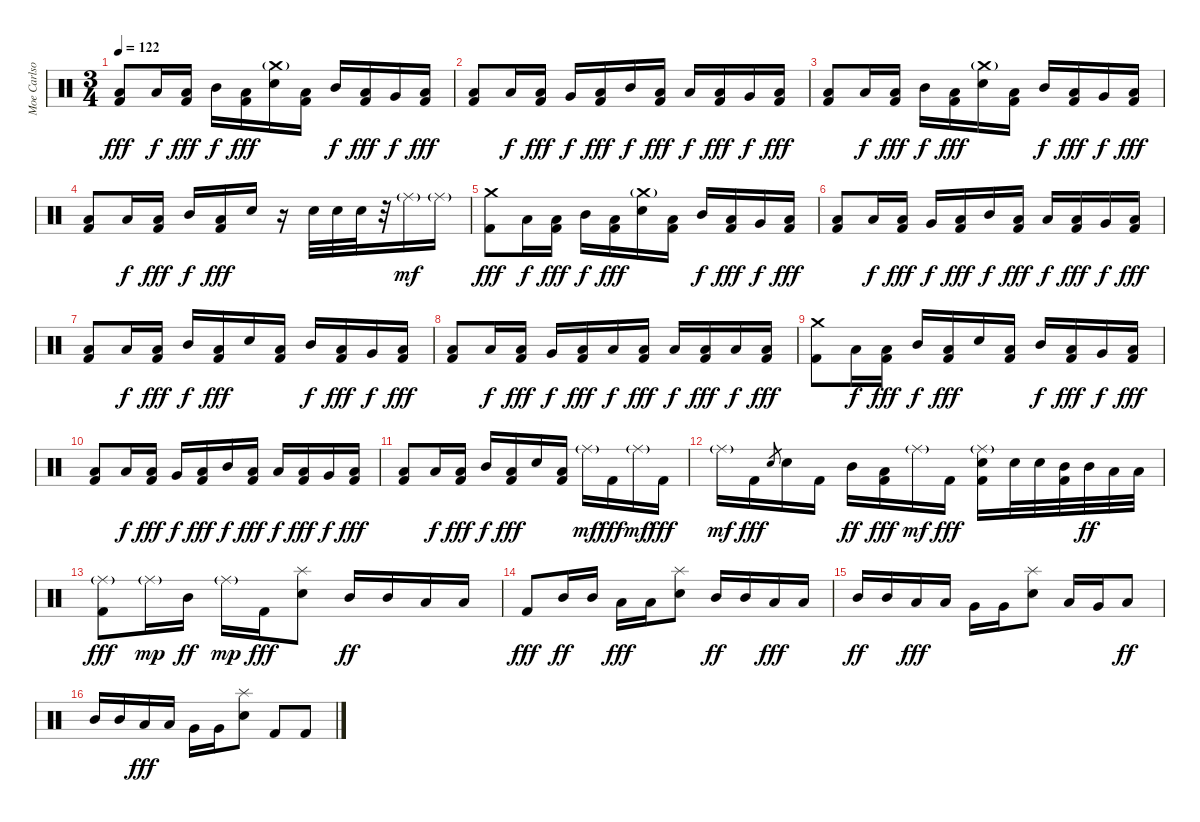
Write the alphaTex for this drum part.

\track ("Moe Carlson" "Moe Carlso") {instrument percussion}
\staff {score}
\articulation defaults
\ts (3 4)
\tempo 122
\clef neutral
\ks c
("Low Floor Tom (hit)" "Kick (hit) 2").8{dy fff} "Low Tom (hit)".16{dy f} ("Low Floor Tom (hit)" "Kick (hit) 2").16{dy fff} "Mid Tom (hit)".16{dy f} ("Low Floor Tom (hit)" "Kick (hit) 2").16{dy fff} ("Crash medium (hit)"{g} "Electric Snare (hit)").16 ("Low Floor Tom (hit)" "Kick (hit) 2").16 "Mid Tom (hit)".16{dy f} ("Low Floor Tom (hit)" "Kick (hit) 2").16{dy fff} "Very Low Tom (hit)".16{dy f} ("Low Floor Tom (hit)" "Kick (hit) 2").16{dy fff} |
("Low Floor Tom (hit)" "Kick (hit) 2").8 "Low Tom (hit)".16{dy f} ("Low Floor Tom (hit)" "Kick (hit) 2").16{dy fff} "Very Low Tom (hit)".16{dy f} ("Low Floor Tom (hit)" "Kick (hit) 2").16{dy fff} "Mid Tom (hit)".16{dy f} ("Low Floor Tom (hit)" "Kick (hit) 2").16{dy fff} "Low Tom (hit)".16{dy f} ("Low Floor Tom (hit)" "Kick (hit) 2").16{dy fff} "Very Low Tom (hit)".16{dy f} ("Low Floor Tom (hit)" "Kick (hit) 2").16{dy fff} |
("Low Floor Tom (hit)" "Kick (hit) 2").8 "Low Tom (hit)".16{dy f} ("Low Floor Tom (hit)" "Kick (hit) 2").16{dy fff} "Mid Tom (hit)".16{dy f} ("Low Floor Tom (hit)" "Kick (hit) 2").16{dy fff} ("Crash medium (hit)"{g} "Electric Snare (hit)").16 ("Low Floor Tom (hit)" "Kick (hit) 2").16 "Mid Tom (hit)".16{dy f} ("Low Floor Tom (hit)" "Kick (hit) 2").16{dy fff} "Very Low Tom (hit)".16{dy f} ("Low Floor Tom (hit)" "Kick (hit) 2").16{dy fff} |
("Low Floor Tom (hit)" "Kick (hit) 2").8 "Low Tom (hit)".16{dy f} ("Low Floor Tom (hit)" "Kick (hit) 2").16{dy fff} "Mid Tom (hit)".16{dy f} ("Low Floor Tom (hit)" "Kick (hit) 2").16{dy fff} "Electric Snare (hit)".16 r.16 "Electric Snare (hit)".32 "Electric Snare (hit)".32 "Electric Snare (hit)".32 r.32 "Ride (middle)"{g}.16{dy mf} "Ride (middle)"{g}.16 |
("Crash medium (hit)" "Kick (hit) 2").8{dy fff} "Low Tom (hit)".16{dy f} ("Low Floor Tom (hit)" "Kick (hit) 2").16{dy fff} "Mid Tom (hit)".16{dy f} ("Low Floor Tom (hit)" "Kick (hit) 2").16{dy fff} ("Crash medium (hit)"{g} "Electric Snare (hit)").16 ("Low Floor Tom (hit)" "Kick (hit) 2").16 "Mid Tom (hit)".16{dy f} ("Low Floor Tom (hit)" "Kick (hit) 2").16{dy fff} "Very Low Tom (hit)".16{dy f} ("Low Floor Tom (hit)" "Kick (hit) 2").16{dy fff} |
("Low Floor Tom (hit)" "Kick (hit) 2").8 "Low Tom (hit)".16{dy f} ("Low Floor Tom (hit)" "Kick (hit) 2").16{dy fff} "Very Low Tom (hit)".16{dy f} ("Low Floor Tom (hit)" "Kick (hit) 2").16{dy fff} "Mid Tom (hit)".16{dy f} ("Low Floor Tom (hit)" "Kick (hit) 2").16{dy fff} "Low Tom (hit)".16{dy f} ("Low Floor Tom (hit)" "Kick (hit) 2").16{dy fff} "Very Low Tom (hit)".16{dy f} ("Low Floor Tom (hit)" "Kick (hit) 2").16{dy fff} |
("Low Floor Tom (hit)" "Kick (hit) 2").8 "Low Tom (hit)".16{dy f} ("Low Floor Tom (hit)" "Kick (hit) 2").16{dy fff} "Mid Tom (hit)".16{dy f} ("Low Floor Tom (hit)" "Kick (hit) 2").16{dy fff} "Electric Snare (hit)".16 ("Low Floor Tom (hit)" "Kick (hit) 2").16 "Mid Tom (hit)".16{dy f} ("Low Floor Tom (hit)" "Kick (hit) 2").16{dy fff} "Very Low Tom (hit)".16{dy f} ("Low Floor Tom (hit)" "Kick (hit) 2").16{dy fff} |
("Low Floor Tom (hit)" "Kick (hit) 2").8 "Low Tom (hit)".16{dy f} ("Low Floor Tom (hit)" "Kick (hit) 2").16{dy fff} "Very Low Tom (hit)".16{dy f} ("Low Floor Tom (hit)" "Kick (hit) 2").16{dy fff} "Low Tom (hit)".16{dy f} ("Low Floor Tom (hit)" "Kick (hit) 2").16{dy fff} "Low Tom (hit)".16{dy f} ("Low Floor Tom (hit)" "Kick (hit) 2").16{dy fff} "Low Tom (hit)".16{dy f} ("Low Floor Tom (hit)" "Kick (hit) 2").16{dy fff} |
("Crash medium (hit)" "Kick (hit) 2").8 "Low Tom (hit)".16{dy f} ("Low Floor Tom (hit)" "Kick (hit) 2").16{dy fff} "Mid Tom (hit)".16{dy f} ("Low Floor Tom (hit)" "Kick (hit) 2").16{dy fff} "Electric Snare (hit)".16 ("Low Floor Tom (hit)" "Kick (hit) 2").16 "Mid Tom (hit)".16{dy f} ("Low Floor Tom (hit)" "Kick (hit) 2").16{dy fff} "Very Low Tom (hit)".16{dy f} ("Low Floor Tom (hit)" "Kick (hit) 2").16{dy fff} |
("Low Floor Tom (hit)" "Kick (hit) 2").8 "Low Tom (hit)".16{dy f} ("Low Floor Tom (hit)" "Kick (hit) 2").16{dy fff} "Very Low Tom (hit)".16{dy f} ("Low Floor Tom (hit)" "Kick (hit) 2").16{dy fff} "Mid Tom (hit)".16{dy f} ("Low Floor Tom (hit)" "Kick (hit) 2").16{dy fff} "Low Tom (hit)".16{dy f} ("Low Floor Tom (hit)" "Kick (hit) 2").16{dy fff} "Very Low Tom (hit)".16{dy f} ("Low Floor Tom (hit)" "Kick (hit) 2").16{dy fff} |
("Low Floor Tom (hit)" "Kick (hit) 2").8 "Low Tom (hit)".16{dy f} ("Low Floor Tom (hit)" "Kick (hit) 2").16{dy fff} "Mid Tom (hit)".16{dy f} ("Low Floor Tom (hit)" "Kick (hit) 2").16{dy fff} "Electric Snare (hit)".16 ("Low Floor Tom (hit)" "Kick (hit) 2").16 "Ride (middle)"{g}.16{dy mf} "Kick (hit) 2".16{dy fff} "Ride (middle)"{g}.16{dy mf} "Kick (hit) 2".16{dy fff} |
"Ride (middle)"{g}.16{dy mf} "Kick (hit) 2".16{dy fff} "Electric Snare (hit)".8{gr} "Electric Snare (hit)".16 "Kick (hit) 2".16 "Mid Tom (hit)".16{dy ff} ("Low Tom (hit)" "Kick (hit) 2").16{dy fff} "Ride (middle)"{g}.16{dy mf} "Kick (hit) 2".16{dy fff} ("Ride (middle)"{g} "Electric Snare (hit)" "Kick (hit) 2").16 "Electric Snare (hit)".32 "Electric Snare (hit)".32 ("Mid Tom (hit)" "Kick (hit) 2").32 "Mid Tom (hit)".32{dy ff} "Low Tom (hit)".32 "Low Tom (hit)".32 |
("Ride (middle)"{g} "Kick (hit) 2").8{dy fff} "Ride (middle)"{g}.16{dy mp} "Mid Tom (hit)".16{dy ff} "Ride (middle)"{g}.16{dy mp} "Kick (hit) 2".16{dy fff} ("Splash (hit)" "Electric Snare (hit)").8 "Mid Tom (hit)".16{dy ff} "Mid Tom (hit)".16 "Low Tom (hit)".16 "Low Tom (hit)".16 |
"Kick (hit) 2".8{dy fff} "Mid Tom (hit)".16{dy ff} "Mid Tom (hit)".16 "Low Tom (hit)".16{dy fff} "Low Tom (hit)".16 ("Splash (hit)" "Electric Snare (hit)").8 "Mid Tom (hit)".16{dy ff} "Mid Tom (hit)".16 "Low Tom (hit)".16{dy fff} "Low Tom (hit)".16 |
"Mid Tom (hit)".16{dy ff} "Mid Tom (hit)".16 "Low Tom (hit)".16{dy fff} "Low Tom (hit)".16 "Very Low Tom (hit)".16 "Very Low Tom (hit)".16 ("Splash (hit)" "Electric Snare (hit)").8 "Low Tom (hit)".16 "Very Low Tom (hit)".16 "Low Floor Tom (hit)".8{dy ff} |
"Mid Tom (hit)".16 "Mid Tom (hit)".16 "Low Tom (hit)".16{dy fff} "Low Tom (hit)".16 "Very Low Tom (hit)".16 "Very Low Tom (hit)".16 ("Splash (hit)" "Electric Snare (hit)").8 "Kick (hit) 2".8 "Kick (hit) 2".8
